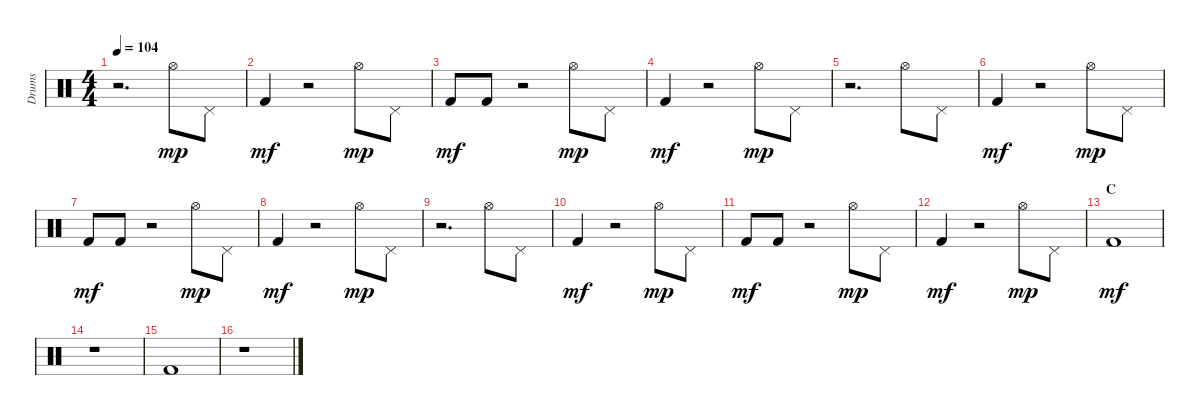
\track ("Drums" "Drums") {instrument percussion}
\staff {score}
\articulation defaults
\ts (4 4)
\tempo 104
\clef neutral
\ks c
r.2{d dy mp} "Hi-Hat (open)".8 "Pedal Hi-Hat (hit)".8 |
"Kick (hit) 2".4{dy mf} r.2 "Hi-Hat (open)".8{dy mp} "Pedal Hi-Hat (hit)".8 |
"Kick (hit) 2".8{dy mf} "Kick (hit) 2".8 r.2 "Hi-Hat (open)".8{dy mp} "Pedal Hi-Hat (hit)".8 |
"Kick (hit) 2".4{dy mf} r.2 "Hi-Hat (open)".8{dy mp} "Pedal Hi-Hat (hit)".8 |
r.2{d} "Hi-Hat (open)".8 "Pedal Hi-Hat (hit)".8 |
"Kick (hit) 2".4{dy mf} r.2 "Hi-Hat (open)".8{dy mp} "Pedal Hi-Hat (hit)".8 |
"Kick (hit) 2".8{dy mf} "Kick (hit) 2".8 r.2 "Hi-Hat (open)".8{dy mp} "Pedal Hi-Hat (hit)".8 |
"Kick (hit) 2".4{dy mf} r.2 "Hi-Hat (open)".8{dy mp} "Pedal Hi-Hat (hit)".8 |
r.2{d} "Hi-Hat (open)".8 "Pedal Hi-Hat (hit)".8 |
"Kick (hit) 2".4{dy mf} r.2 "Hi-Hat (open)".8{dy mp} "Pedal Hi-Hat (hit)".8 |
"Kick (hit) 2".8{dy mf} "Kick (hit) 2".8 r.2 "Hi-Hat (open)".8{dy mp} "Pedal Hi-Hat (hit)".8 |
"Kick (hit) 2".4{dy mf} r.2 "Hi-Hat (open)".8{dy mp} "Pedal Hi-Hat (hit)".8 |
\section ("" "C")
"Kick (hit) 2".1{dy mf} |
r.1 |
"Kick (hit) 2".1 |
r.1
